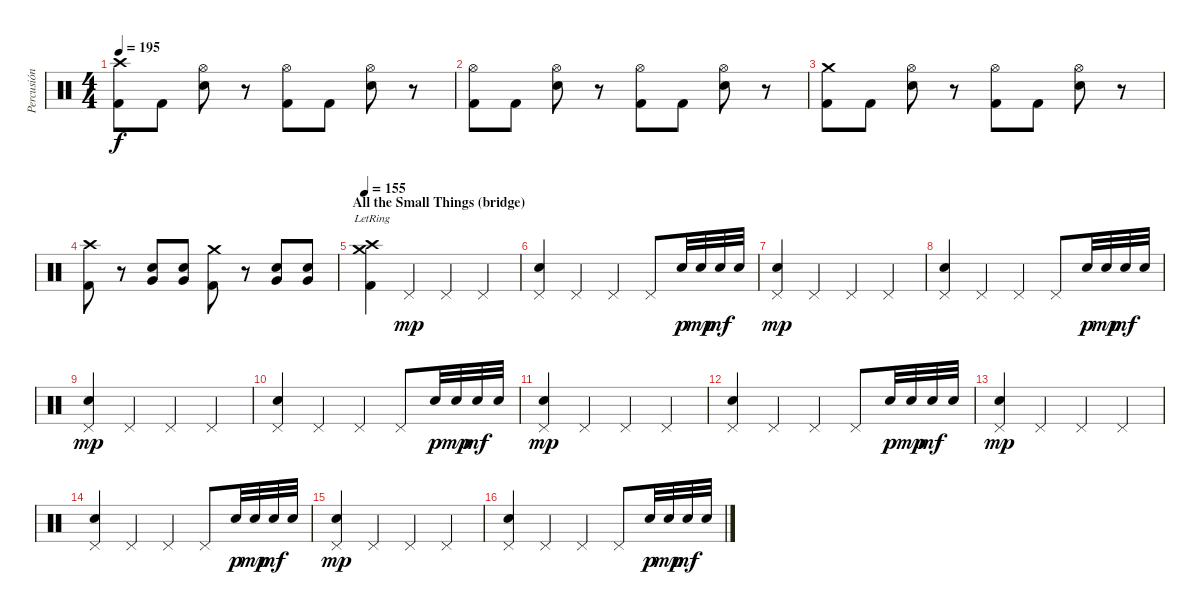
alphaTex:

\track ("Percusión" "Percusión") {instrument percussion}
\staff {score}
\articulation defaults
\ts (4 4)
\tempo 195
\clef neutral
\ks c
("Crash high (hit)" "Kick (hit) 2").8{dy f} "Kick (hit) 2".8 ("Hi-Hat (open)" "Electric Snare (hit)").8 r.8 ("Hi-Hat (open)" "Kick (hit) 2").8 "Kick (hit) 2".8 ("Hi-Hat (open)" "Electric Snare (hit)").8 r.8 |
("Hi-Hat (open)" "Kick (hit) 2").8 "Kick (hit) 2".8 ("Hi-Hat (open)" "Electric Snare (hit)").8 r.8 ("Hi-Hat (open)" "Kick (hit) 2").8 "Kick (hit) 2".8 ("Hi-Hat (open)" "Electric Snare (hit)").8 r.8 |
("Crash medium (hit)" "Kick (hit) 2").8 "Kick (hit) 2".8 ("Hi-Hat (open)" "Electric Snare (hit)").8 r.8 ("Hi-Hat (open)" "Kick (hit) 2").8 "Kick (hit) 2".8 ("Hi-Hat (open)" "Electric Snare (hit)").8 r.8 |
("Crash high (hit)" "Kick (hit) 2").8 r.8 ("Very Low Tom (hit)" "Electric Snare (hit)").8 ("Very Low Tom (hit)" "Electric Snare (hit)").8 ("Crash medium (hit)" "Kick (hit) 2").8 r.8 ("Very Low Tom (hit)" "Electric Snare (hit)").8 ("Very Low Tom (hit)" "Electric Snare (hit)").8 |
\section ("" "All the Small Things (bridge)")
\tempo 155
("Crash high (hit)" "Crash medium (hit)"{lr} "Kick (hit) 2").4 "Pedal Hi-Hat (hit)".4{dy mp} "Pedal Hi-Hat (hit)".4 "Pedal Hi-Hat (hit)".4 |
("Pedal Hi-Hat (hit)" "Electric Snare (hit)").4 "Pedal Hi-Hat (hit)".4 "Pedal Hi-Hat (hit)".4 "Pedal Hi-Hat (hit)".8 "Electric Snare (hit)".32{dy p} "Electric Snare (hit)".32{dy mp} "Electric Snare (hit)".32{dy mf} "Electric Snare (hit)".32 |
("Pedal Hi-Hat (hit)" "Electric Snare (hit)").4{dy mp} "Pedal Hi-Hat (hit)".4 "Pedal Hi-Hat (hit)".4 "Pedal Hi-Hat (hit)".4 |
("Pedal Hi-Hat (hit)" "Electric Snare (hit)").4 "Pedal Hi-Hat (hit)".4 "Pedal Hi-Hat (hit)".4 "Pedal Hi-Hat (hit)".8 "Electric Snare (hit)".32{dy p} "Electric Snare (hit)".32{dy mp} "Electric Snare (hit)".32{dy mf} "Electric Snare (hit)".32 |
("Pedal Hi-Hat (hit)" "Electric Snare (hit)").4{dy mp} "Pedal Hi-Hat (hit)".4 "Pedal Hi-Hat (hit)".4 "Pedal Hi-Hat (hit)".4 |
("Pedal Hi-Hat (hit)" "Electric Snare (hit)").4 "Pedal Hi-Hat (hit)".4 "Pedal Hi-Hat (hit)".4 "Pedal Hi-Hat (hit)".8 "Electric Snare (hit)".32{dy p} "Electric Snare (hit)".32{dy mp} "Electric Snare (hit)".32{dy mf} "Electric Snare (hit)".32 |
("Pedal Hi-Hat (hit)" "Electric Snare (hit)").4{dy mp} "Pedal Hi-Hat (hit)".4 "Pedal Hi-Hat (hit)".4 "Pedal Hi-Hat (hit)".4 |
("Pedal Hi-Hat (hit)" "Electric Snare (hit)").4 "Pedal Hi-Hat (hit)".4 "Pedal Hi-Hat (hit)".4 "Pedal Hi-Hat (hit)".8 "Electric Snare (hit)".32{dy p} "Electric Snare (hit)".32{dy mp} "Electric Snare (hit)".32{dy mf} "Electric Snare (hit)".32 |
("Pedal Hi-Hat (hit)" "Electric Snare (hit)").4{dy mp} "Pedal Hi-Hat (hit)".4 "Pedal Hi-Hat (hit)".4 "Pedal Hi-Hat (hit)".4 |
("Pedal Hi-Hat (hit)" "Electric Snare (hit)").4 "Pedal Hi-Hat (hit)".4 "Pedal Hi-Hat (hit)".4 "Pedal Hi-Hat (hit)".8 "Electric Snare (hit)".32{dy p} "Electric Snare (hit)".32{dy mp} "Electric Snare (hit)".32{dy mf} "Electric Snare (hit)".32 |
("Pedal Hi-Hat (hit)" "Electric Snare (hit)").4{dy mp} "Pedal Hi-Hat (hit)".4 "Pedal Hi-Hat (hit)".4 "Pedal Hi-Hat (hit)".4 |
("Pedal Hi-Hat (hit)" "Electric Snare (hit)").4 "Pedal Hi-Hat (hit)".4 "Pedal Hi-Hat (hit)".4 "Pedal Hi-Hat (hit)".8 "Electric Snare (hit)".32{dy p} "Electric Snare (hit)".32{dy mp} "Electric Snare (hit)".32{dy mf} "Electric Snare (hit)".32
